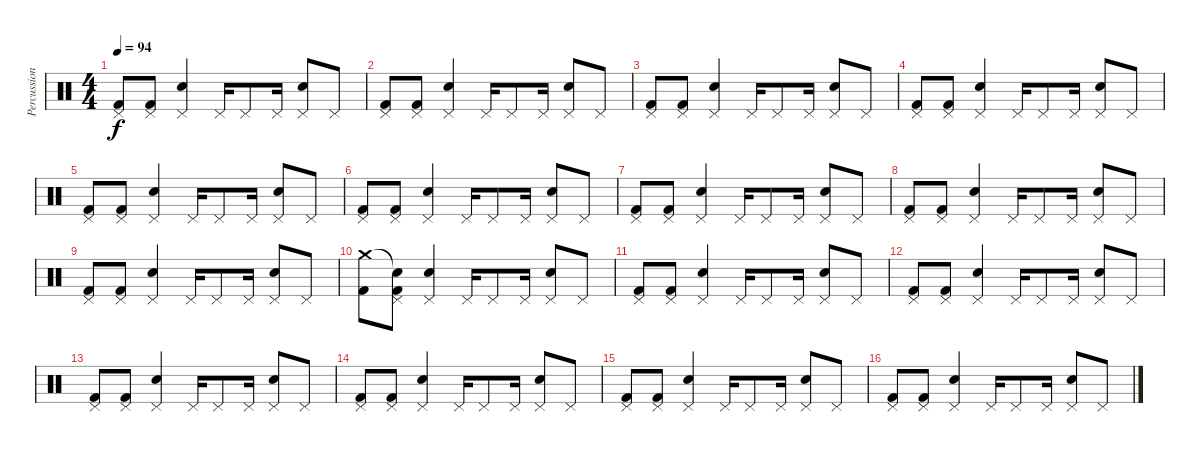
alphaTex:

\track ("Percussions" "Percussion") {instrument percussion}
\staff {score}
\articulation defaults
\ts (4 4)
\tempo 94
\clef neutral
\ks c
("Pedal Hi-Hat (hit)" "Kick (hit) 2").8{dy f} ("Pedal Hi-Hat (hit)" "Kick (hit) 2").8 ("Pedal Hi-Hat (hit)" "Electric Snare (hit)").4 "Pedal Hi-Hat (hit)".16 "Pedal Hi-Hat (hit)".8 "Pedal Hi-Hat (hit)".16 ("Pedal Hi-Hat (hit)" "Electric Snare (hit)").8 "Pedal Hi-Hat (hit)".8 |
("Pedal Hi-Hat (hit)" "Kick (hit) 2").8 ("Pedal Hi-Hat (hit)" "Kick (hit) 2").8 ("Pedal Hi-Hat (hit)" "Electric Snare (hit)").4 "Pedal Hi-Hat (hit)".16 "Pedal Hi-Hat (hit)".8 "Pedal Hi-Hat (hit)".16 ("Pedal Hi-Hat (hit)" "Electric Snare (hit)").8 "Pedal Hi-Hat (hit)".8 |
("Pedal Hi-Hat (hit)" "Kick (hit) 2").8 ("Pedal Hi-Hat (hit)" "Kick (hit) 2").8 ("Pedal Hi-Hat (hit)" "Electric Snare (hit)").4 "Pedal Hi-Hat (hit)".16 "Pedal Hi-Hat (hit)".8 "Pedal Hi-Hat (hit)".16 ("Pedal Hi-Hat (hit)" "Electric Snare (hit)").8 "Pedal Hi-Hat (hit)".8 |
("Pedal Hi-Hat (hit)" "Kick (hit) 2").8 ("Pedal Hi-Hat (hit)" "Kick (hit) 2").8 ("Pedal Hi-Hat (hit)" "Electric Snare (hit)").4 "Pedal Hi-Hat (hit)".16 "Pedal Hi-Hat (hit)".8 "Pedal Hi-Hat (hit)".16 ("Pedal Hi-Hat (hit)" "Electric Snare (hit)").8 "Pedal Hi-Hat (hit)".8 |
("Pedal Hi-Hat (hit)" "Kick (hit) 2").8 ("Pedal Hi-Hat (hit)" "Kick (hit) 2").8 ("Pedal Hi-Hat (hit)" "Electric Snare (hit)").4 "Pedal Hi-Hat (hit)".16 "Pedal Hi-Hat (hit)".8 "Pedal Hi-Hat (hit)".16 ("Pedal Hi-Hat (hit)" "Electric Snare (hit)").8 "Pedal Hi-Hat (hit)".8 |
("Pedal Hi-Hat (hit)" "Kick (hit) 2").8 ("Pedal Hi-Hat (hit)" "Kick (hit) 2").8 ("Pedal Hi-Hat (hit)" "Electric Snare (hit)").4 "Pedal Hi-Hat (hit)".16 "Pedal Hi-Hat (hit)".8 "Pedal Hi-Hat (hit)".16 ("Pedal Hi-Hat (hit)" "Electric Snare (hit)").8 "Pedal Hi-Hat (hit)".8 |
("Pedal Hi-Hat (hit)" "Kick (hit) 2").8 ("Pedal Hi-Hat (hit)" "Kick (hit) 2").8 ("Pedal Hi-Hat (hit)" "Electric Snare (hit)").4 "Pedal Hi-Hat (hit)".16 "Pedal Hi-Hat (hit)".8 "Pedal Hi-Hat (hit)".16 ("Pedal Hi-Hat (hit)" "Electric Snare (hit)").8 "Pedal Hi-Hat (hit)".8 |
("Pedal Hi-Hat (hit)" "Kick (hit) 2").8 ("Pedal Hi-Hat (hit)" "Kick (hit) 2").8 ("Pedal Hi-Hat (hit)" "Electric Snare (hit)").4 "Pedal Hi-Hat (hit)".16 "Pedal Hi-Hat (hit)".8 "Pedal Hi-Hat (hit)".16 ("Pedal Hi-Hat (hit)" "Electric Snare (hit)").8 "Pedal Hi-Hat (hit)".8 |
("Pedal Hi-Hat (hit)" "Kick (hit) 2").8 ("Pedal Hi-Hat (hit)" "Kick (hit) 2").8 ("Pedal Hi-Hat (hit)" "Electric Snare (hit)").4 "Pedal Hi-Hat (hit)".16 "Pedal Hi-Hat (hit)".8 "Pedal Hi-Hat (hit)".16 ("Pedal Hi-Hat (hit)" "Electric Snare (hit)").8 "Pedal Hi-Hat (hit)".8 |
("Crash medium (hit)" "Kick (hit) 2").8 ("Snare (hit)"{t} "Pedal Hi-Hat (hit)" "Kick (hit) 2").8 ("Pedal Hi-Hat (hit)" "Electric Snare (hit)").4 "Pedal Hi-Hat (hit)".16 "Pedal Hi-Hat (hit)".8 "Pedal Hi-Hat (hit)".16 ("Pedal Hi-Hat (hit)" "Electric Snare (hit)").8 "Pedal Hi-Hat (hit)".8 |
("Pedal Hi-Hat (hit)" "Kick (hit) 2").8 ("Pedal Hi-Hat (hit)" "Kick (hit) 2").8 ("Pedal Hi-Hat (hit)" "Electric Snare (hit)").4 "Pedal Hi-Hat (hit)".16 "Pedal Hi-Hat (hit)".8 "Pedal Hi-Hat (hit)".16 ("Pedal Hi-Hat (hit)" "Electric Snare (hit)").8 "Pedal Hi-Hat (hit)".8 |
("Pedal Hi-Hat (hit)" "Kick (hit) 2").8 ("Pedal Hi-Hat (hit)" "Kick (hit) 2").8 ("Pedal Hi-Hat (hit)" "Electric Snare (hit)").4 "Pedal Hi-Hat (hit)".16 "Pedal Hi-Hat (hit)".8 "Pedal Hi-Hat (hit)".16 ("Pedal Hi-Hat (hit)" "Electric Snare (hit)").8 "Pedal Hi-Hat (hit)".8 |
("Pedal Hi-Hat (hit)" "Kick (hit) 2").8 ("Pedal Hi-Hat (hit)" "Kick (hit) 2").8 ("Pedal Hi-Hat (hit)" "Electric Snare (hit)").4 "Pedal Hi-Hat (hit)".16 "Pedal Hi-Hat (hit)".8 "Pedal Hi-Hat (hit)".16 ("Pedal Hi-Hat (hit)" "Electric Snare (hit)").8 "Pedal Hi-Hat (hit)".8 |
("Pedal Hi-Hat (hit)" "Kick (hit) 2").8 ("Pedal Hi-Hat (hit)" "Kick (hit) 2").8 ("Pedal Hi-Hat (hit)" "Electric Snare (hit)").4 "Pedal Hi-Hat (hit)".16 "Pedal Hi-Hat (hit)".8 "Pedal Hi-Hat (hit)".16 ("Pedal Hi-Hat (hit)" "Electric Snare (hit)").8 "Pedal Hi-Hat (hit)".8 |
("Pedal Hi-Hat (hit)" "Kick (hit) 2").8 ("Pedal Hi-Hat (hit)" "Kick (hit) 2").8 ("Pedal Hi-Hat (hit)" "Electric Snare (hit)").4 "Pedal Hi-Hat (hit)".16 "Pedal Hi-Hat (hit)".8 "Pedal Hi-Hat (hit)".16 ("Pedal Hi-Hat (hit)" "Electric Snare (hit)").8 "Pedal Hi-Hat (hit)".8 |
("Pedal Hi-Hat (hit)" "Kick (hit) 2").8 ("Pedal Hi-Hat (hit)" "Kick (hit) 2").8 ("Pedal Hi-Hat (hit)" "Electric Snare (hit)").4 "Pedal Hi-Hat (hit)".16 "Pedal Hi-Hat (hit)".8 "Pedal Hi-Hat (hit)".16 ("Pedal Hi-Hat (hit)" "Electric Snare (hit)").8 "Pedal Hi-Hat (hit)".8
